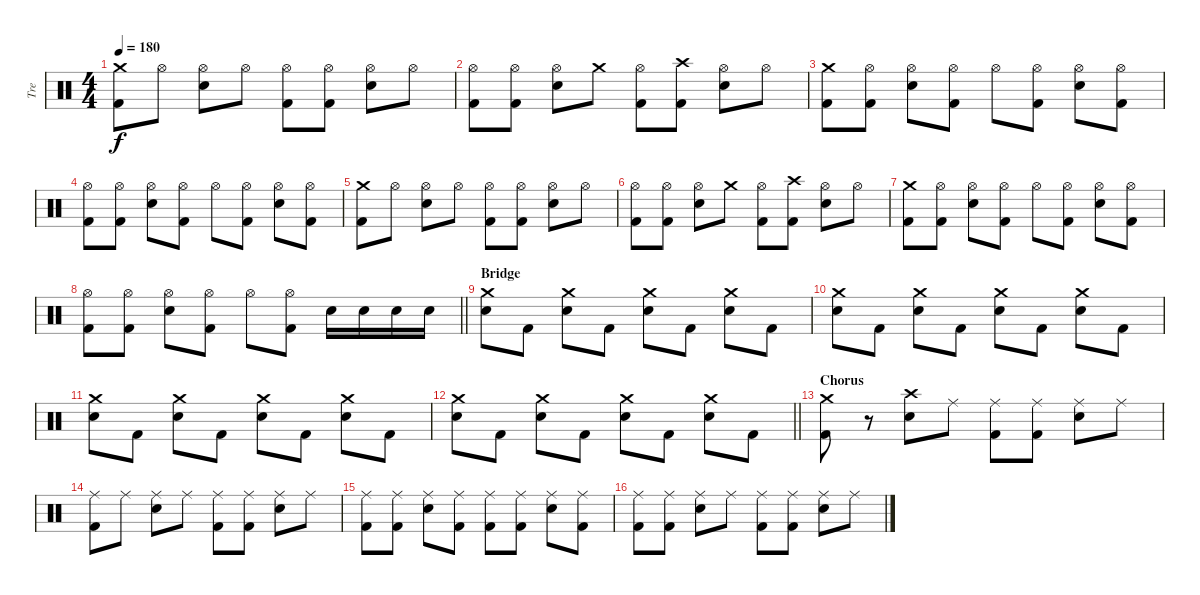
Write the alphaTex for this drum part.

\track ("Tre" "Tre") {instrument percussion}
\staff {score}
\articulation defaults
\ts (4 4)
\tempo 180
\clef neutral
\ks c
("Kick (hit) 2" "Crash medium (hit)").8{dy f} "Hi-Hat (open)".8 ("Snare (hit) 2" "Hi-Hat (open)").8 "Hi-Hat (open)".8 ("Kick (hit) 2" "Hi-Hat (open)").8 ("Kick (hit) 2" "Hi-Hat (open)").8 ("Snare (hit) 2" "Hi-Hat (open)").8 "Hi-Hat (open)".8 |
("Kick (hit) 2" "Hi-Hat (open)").8 ("Kick (hit) 2" "Hi-Hat (open)").8 ("Snare (hit) 2" "Hi-Hat (open)").8 "Crash medium (hit)".8 ("Kick (hit) 2" "Hi-Hat (open)").8 ("Kick (hit) 2" "Crash high (hit)").8 ("Snare (hit) 2" "Hi-Hat (open)").8 "Hi-Hat (open)".8 |
("Kick (hit) 2" "Crash medium (hit)").8 ("Kick (hit) 2" "Hi-Hat (open)").8 ("Snare (hit) 2" "Hi-Hat (open)").8 ("Kick (hit) 2" "Hi-Hat (open)").8 "Hi-Hat (open)".8 ("Kick (hit) 2" "Hi-Hat (open)").8 ("Snare (hit) 2" "Hi-Hat (open)").8 ("Kick (hit) 2" "Hi-Hat (open)").8 |
("Kick (hit) 2" "Hi-Hat (open)").8 ("Kick (hit) 2" "Hi-Hat (open)").8 ("Snare (hit) 2" "Hi-Hat (open)").8 ("Kick (hit) 2" "Hi-Hat (open)").8 "Hi-Hat (open)".8 ("Kick (hit) 2" "Hi-Hat (open)").8 ("Snare (hit) 2" "Hi-Hat (open)").8 ("Kick (hit) 2" "Hi-Hat (open)").8 |
("Kick (hit) 2" "Crash medium (hit)").8 "Hi-Hat (open)".8 ("Snare (hit) 2" "Hi-Hat (open)").8 "Hi-Hat (open)".8 ("Kick (hit) 2" "Hi-Hat (open)").8 ("Kick (hit) 2" "Hi-Hat (open)").8 ("Snare (hit) 2" "Hi-Hat (open)").8 "Hi-Hat (open)".8 |
("Kick (hit) 2" "Hi-Hat (open)").8 ("Kick (hit) 2" "Hi-Hat (open)").8 ("Snare (hit) 2" "Hi-Hat (open)").8 "Crash medium (hit)".8 ("Kick (hit) 2" "Hi-Hat (open)").8 ("Kick (hit) 2" "Crash high (hit)").8 ("Snare (hit) 2" "Hi-Hat (open)").8 "Hi-Hat (open)".8 |
("Kick (hit) 2" "Crash medium (hit)").8 ("Kick (hit) 2" "Hi-Hat (open)").8 ("Snare (hit) 2" "Hi-Hat (open)").8 ("Kick (hit) 2" "Hi-Hat (open)").8 "Hi-Hat (open)".8 ("Kick (hit) 2" "Hi-Hat (open)").8 ("Snare (hit) 2" "Hi-Hat (open)").8 ("Kick (hit) 2" "Hi-Hat (open)").8 |
\barLineRight lightlight
("Kick (hit) 2" "Hi-Hat (open)").8 ("Kick (hit) 2" "Hi-Hat (open)").8 ("Snare (hit) 2" "Hi-Hat (open)").8 ("Kick (hit) 2" "Hi-Hat (open)").8 "Hi-Hat (open)".8 ("Kick (hit) 2" "Hi-Hat (open)").8 "Snare (hit) 2".16 "Snare (hit) 2".16 "Snare (hit) 2".16 "Snare (hit) 2".16 |
\section ("" "Bridge")
("Snare (hit) 2" "Crash medium (hit)").8 "Kick (hit) 2".8 ("Snare (hit) 2" "Crash medium (hit)").8 "Kick (hit) 2".8 ("Snare (hit) 2" "Crash medium (hit)").8 "Kick (hit) 2".8 ("Snare (hit) 2" "Crash medium (hit)").8 "Kick (hit) 2".8 |
("Snare (hit) 2" "Crash medium (hit)").8 "Kick (hit) 2".8 ("Snare (hit) 2" "Crash medium (hit)").8 "Kick (hit) 2".8 ("Snare (hit) 2" "Crash medium (hit)").8 "Kick (hit) 2".8 ("Snare (hit) 2" "Crash medium (hit)").8 "Kick (hit) 2".8 |
("Snare (hit) 2" "Crash medium (hit)").8 "Kick (hit) 2".8 ("Snare (hit) 2" "Crash medium (hit)").8 "Kick (hit) 2".8 ("Snare (hit) 2" "Crash medium (hit)").8 "Kick (hit) 2".8 ("Snare (hit) 2" "Crash medium (hit)").8 "Kick (hit) 2".8 |
\barLineRight lightlight
("Snare (hit) 2" "Crash medium (hit)").8 "Kick (hit) 2".8 ("Snare (hit) 2" "Crash medium (hit)").8 "Kick (hit) 2".8 ("Snare (hit) 2" "Crash medium (hit)").8 "Kick (hit) 2".8 ("Snare (hit) 2" "Crash medium (hit)").8 "Kick (hit) 2".8 |
\section ("" "Chorus")
("Kick (hit) 2" "Crash medium (hit)").8 r.8 ("Snare (hit) 2" "Crash high (hit)").8 "Ride (middle)".8 ("Kick (hit) 2" "Ride (middle)").8 ("Kick (hit) 2" "Ride (middle)").8 ("Snare (hit) 2" "Ride (middle)").8 "Ride (middle)".8 |
("Kick (hit) 2" "Ride (middle)").8 "Ride (middle)".8 ("Snare (hit) 2" "Ride (middle)").8 "Ride (middle)".8 ("Kick (hit) 2" "Ride (middle)").8 ("Kick (hit) 2" "Ride (middle)").8 ("Snare (hit) 2" "Ride (middle)").8 "Ride (middle)".8 |
("Kick (hit) 2" "Ride (middle)").8 ("Kick (hit) 2" "Ride (middle)").8 ("Snare (hit) 2" "Ride (middle)").8 ("Kick (hit) 2" "Ride (middle)").8 ("Kick (hit) 2" "Ride (middle)").8 ("Kick (hit) 2" "Ride (middle)").8 ("Snare (hit) 2" "Ride (middle)").8 ("Kick (hit) 2" "Ride (middle)").8 |
("Kick (hit) 2" "Ride (middle)").8 ("Kick (hit) 2" "Ride (middle)").8 ("Snare (hit) 2" "Ride (middle)").8 "Ride (middle)".8 ("Kick (hit) 2" "Ride (middle)").8 ("Kick (hit) 2" "Ride (middle)").8 ("Snare (hit) 2" "Ride (middle)").8 "Ride (middle)".8
